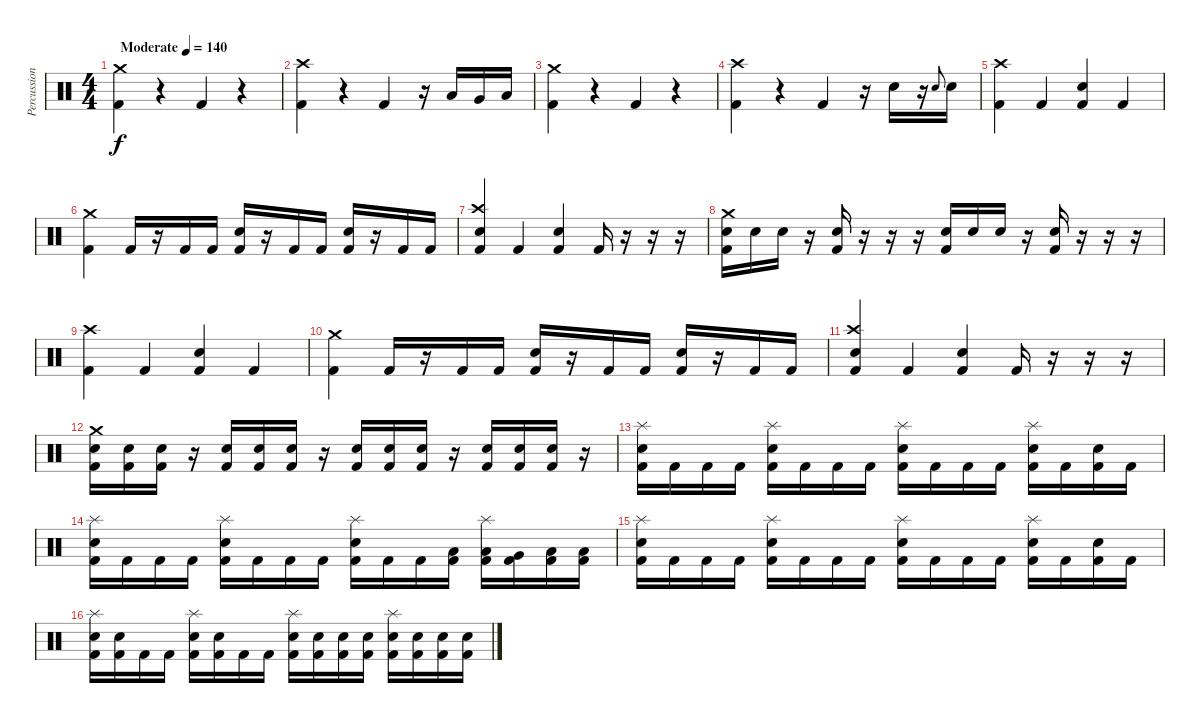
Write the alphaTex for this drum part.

\track ("Percussion" "Percussion") {instrument percussion}
\staff {score}
\articulation defaults
\ts (4 4)
\tempo (140 "Moderate")
\clef neutral
\ks c
("Crash medium (hit)" "Kick (hit) 2").4{dy f} r.4 "Kick (hit) 2".4 r.4 |
("Crash high (hit)" "Kick (hit) 2").4 r.4 "Kick (hit) 2".4 r.16 "Low Tom (hit)".16 "Very Low Tom (hit)".16 "Low Floor Tom (hit)".16 |
("Crash medium (hit)" "Kick (hit) 2").4 r.4 "Kick (hit) 2".4 r.4 |
("Crash high (hit)" "Kick (hit) 2").4 r.4 "Kick (hit) 2".4 r.16 "Electric Snare (hit)".16 r.16 "Electric Snare (hit)".8{gr onbeat} "Electric Snare (hit)".16 |
("Crash high (hit)" "Kick (hit) 2").4 "Kick (hit) 2".4 ("Electric Snare (hit)" "Kick (hit) 2").4 "Kick (hit) 2".4 |
("Crash medium (hit)" "Kick (hit) 2").4 "Kick (hit) 2".16 r.16 "Kick (hit) 2".16 "Kick (hit) 2".16 ("Electric Snare (hit)" "Kick (hit) 2").16 r.16 "Kick (hit) 2".16 "Kick (hit) 2".16 ("Electric Snare (hit)" "Kick (hit) 2").16 r.16 "Kick (hit) 2".16 "Kick (hit) 2".16 |
("Crash high (hit)" "Electric Snare (hit)" "Kick (hit) 2").4 "Kick (hit) 2".4 ("Electric Snare (hit)" "Kick (hit) 2").4 "Kick (hit) 2".16 r.16 r.16 r.16 |
("Crash medium (hit)" "Electric Snare (hit)" "Kick (hit) 2").16 "Electric Snare (hit)".16 "Electric Snare (hit)".16 r.16 ("Electric Snare (hit)" "Kick (hit) 2").16 r.16 r.16 r.16 ("Electric Snare (hit)" "Kick (hit) 2").16 "Electric Snare (hit)".16 "Electric Snare (hit)".16 r.16 ("Electric Snare (hit)" "Kick (hit) 2").16 r.16 r.16 r.16 |
("Crash high (hit)" "Kick (hit) 2").4 "Kick (hit) 2".4 ("Electric Snare (hit)" "Kick (hit) 2").4 "Kick (hit) 2".4 |
("Crash medium (hit)" "Kick (hit) 2").4 "Kick (hit) 2".16 r.16 "Kick (hit) 2".16 "Kick (hit) 2".16 ("Electric Snare (hit)" "Kick (hit) 2").16 r.16 "Kick (hit) 2".16 "Kick (hit) 2".16 ("Electric Snare (hit)" "Kick (hit) 2").16 r.16 "Kick (hit) 2".16 "Kick (hit) 2".16 |
("Crash high (hit)" "Electric Snare (hit)" "Kick (hit) 2").4 "Kick (hit) 2".4 ("Electric Snare (hit)" "Kick (hit) 2").4 "Kick (hit) 2".16 r.16 r.16 r.16 |
("Crash medium (hit)" "Electric Snare (hit)" "Kick (hit) 2").16 ("Electric Snare (hit)" "Kick (hit) 2").16 ("Electric Snare (hit)" "Kick (hit) 2").16 r.16 ("Electric Snare (hit)" "Kick (hit) 2").16 ("Electric Snare (hit)" "Kick (hit) 2").16 ("Electric Snare (hit)" "Kick (hit) 2").16 r.16 ("Electric Snare (hit)" "Kick (hit) 2").16 ("Electric Snare (hit)" "Kick (hit) 2").16 ("Electric Snare (hit)" "Kick (hit) 2").16 r.16 ("Electric Snare (hit)" "Kick (hit) 2").16 ("Electric Snare (hit)" "Kick (hit) 2").16 ("Electric Snare (hit)" "Kick (hit) 2").16 r.16 |
("Splash (hit)" "Electric Snare (hit)" "Kick (hit) 2").16 "Kick (hit) 2".16 "Kick (hit) 2".16 "Kick (hit) 2".16 ("Splash (hit)" "Electric Snare (hit)" "Kick (hit) 2").16 "Kick (hit) 2".16 "Kick (hit) 2".16 "Kick (hit) 2".16 ("Splash (hit)" "Electric Snare (hit)" "Kick (hit) 2").16 "Kick (hit) 2".16 "Kick (hit) 2".16 "Kick (hit) 2".16 ("Splash (hit)" "Electric Snare (hit)" "Kick (hit) 2").16 "Kick (hit) 2".16 ("Electric Snare (hit)" "Kick (hit) 2").16 "Kick (hit) 2".16 |
("Splash (hit)" "Electric Snare (hit)" "Kick (hit) 2").16 "Kick (hit) 2".16 "Kick (hit) 2".16 "Kick (hit) 2".16 ("Splash (hit)" "Electric Snare (hit)" "Kick (hit) 2").16 "Kick (hit) 2".16 "Kick (hit) 2".16 "Kick (hit) 2".16 ("Splash (hit)" "Electric Snare (hit)" "Kick (hit) 2").16 "Kick (hit) 2".16 "Kick (hit) 2".16 ("Low Tom (hit)" "Kick (hit) 2").16 ("Splash (hit)" "Low Tom (hit)" "Kick (hit) 2").16 ("Very Low Tom (hit)" "Kick (hit) 2").16 ("Low Floor Tom (hit)" "Kick (hit) 2").16 ("Low Floor Tom (hit)" "Kick (hit) 2").16 |
("Splash (hit)" "Electric Snare (hit)" "Kick (hit) 2").16 "Kick (hit) 2".16 "Kick (hit) 2".16 "Kick (hit) 2".16 ("Splash (hit)" "Electric Snare (hit)" "Kick (hit) 2").16 "Kick (hit) 2".16 "Kick (hit) 2".16 "Kick (hit) 2".16 ("Splash (hit)" "Electric Snare (hit)" "Kick (hit) 2").16 "Kick (hit) 2".16 "Kick (hit) 2".16 "Kick (hit) 2".16 ("Splash (hit)" "Electric Snare (hit)" "Kick (hit) 2").16 "Kick (hit) 2".16 ("Electric Snare (hit)" "Kick (hit) 2").16 "Kick (hit) 2".16 |
("Splash (hit)" "Electric Snare (hit)" "Kick (hit) 2").16 ("Electric Snare (hit)" "Kick (hit) 2").16 "Kick (hit) 2".16 "Kick (hit) 2".16 ("Splash (hit)" "Electric Snare (hit)" "Kick (hit) 2").16 ("Electric Snare (hit)" "Kick (hit) 2").16 "Kick (hit) 2".16 "Kick (hit) 2".16 ("Splash (hit)" "Electric Snare (hit)" "Kick (hit) 2").16 ("Electric Snare (hit)" "Kick (hit) 2").16 ("Electric Snare (hit)" "Kick (hit) 2").16 ("Electric Snare (hit)" "Kick (hit) 2").16 ("Splash (hit)" "Electric Snare (hit)" "Kick (hit) 2").16 ("Electric Snare (hit)" "Kick (hit) 2").16 ("Electric Snare (hit)" "Kick (hit) 2").16 ("Electric Snare (hit)" "Kick (hit) 2").16
